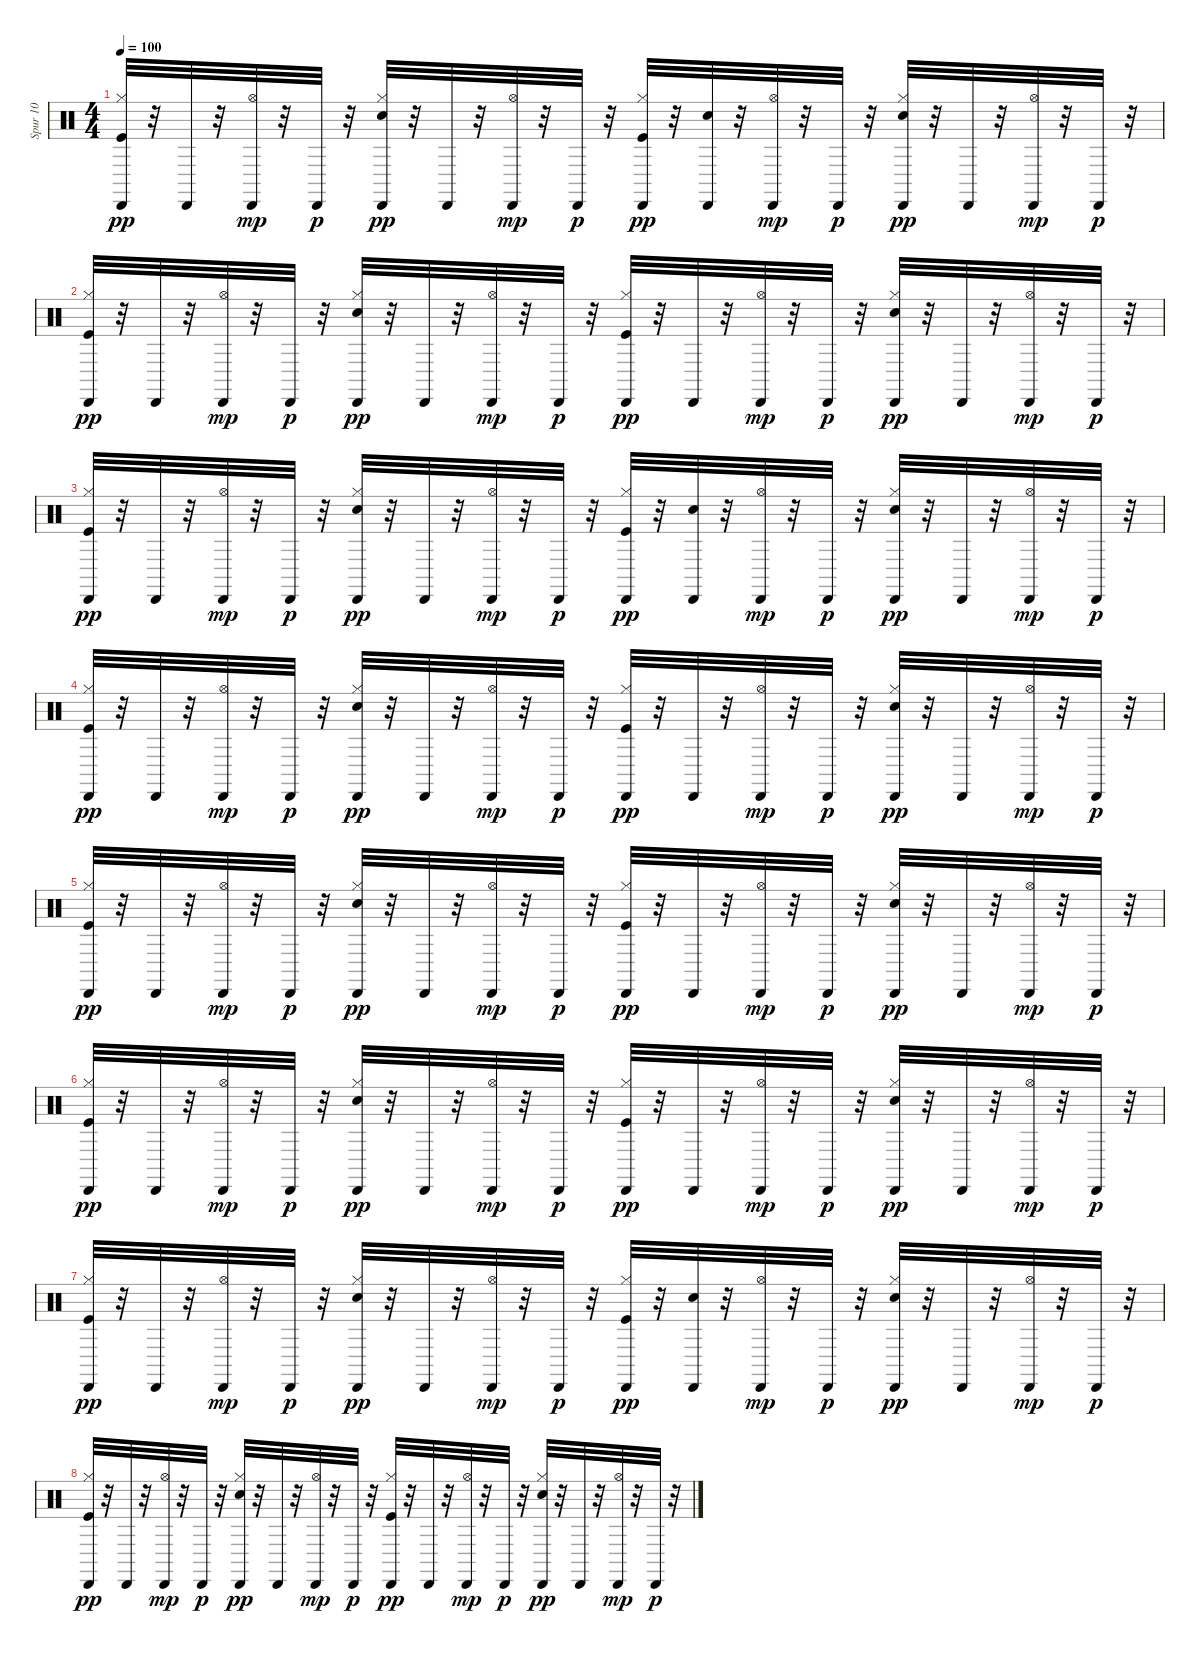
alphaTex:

\track ("Spur 10" "Spur 10") {instrument percussion}
\staff {score}
\articulation defaults
\ts (4 4)
\tempo 100
\clef neutral
\ks c
("Kick (hit)" "Hi-Hat (closed)" "Cabasa (hit)").32{dy pp} r.32 "Cabasa (hit)".32 r.32 ("Hi-Hat (open)" "Cabasa (hit)").32{dy mp} r.32 "Cabasa (hit)".32{dy p} r.32 ("Electric Snare (hit)" "Hi-Hat (closed)" "Cabasa (hit)").32{dy pp} r.32 "Cabasa (hit)".32 r.32 ("Hi-Hat (open)" "Cabasa (hit)").32{dy mp} r.32 "Cabasa (hit)".32{dy p} r.32 ("Kick (hit)" "Hi-Hat (closed)" "Cabasa (hit)").32{dy pp} r.32 ("Electric Snare (hit)" "Cabasa (hit)").32 r.32 ("Hi-Hat (open)" "Cabasa (hit)").32{dy mp} r.32 "Cabasa (hit)".32{dy p} r.32 ("Electric Snare (hit)" "Hi-Hat (closed)" "Cabasa (hit)").32{dy pp} r.32 "Cabasa (hit)".32 r.32 ("Hi-Hat (open)" "Cabasa (hit)").32{dy mp} r.32 "Cabasa (hit)".32{dy p} r.32 |
("Kick (hit)" "Hi-Hat (closed)" "Cabasa (hit)").32{dy pp} r.32 "Cabasa (hit)".32 r.32 ("Hi-Hat (open)" "Cabasa (hit)").32{dy mp} r.32 "Cabasa (hit)".32{dy p} r.32 ("Electric Snare (hit)" "Hi-Hat (closed)" "Cabasa (hit)").32{dy pp} r.32 "Cabasa (hit)".32 r.32 ("Hi-Hat (open)" "Cabasa (hit)").32{dy mp} r.32 "Cabasa (hit)".32{dy p} r.32 ("Kick (hit)" "Hi-Hat (closed)" "Cabasa (hit)").32{dy pp} r.32 "Cabasa (hit)".32 r.32 ("Hi-Hat (open)" "Cabasa (hit)").32{dy mp} r.32 "Cabasa (hit)".32{dy p} r.32 ("Electric Snare (hit)" "Hi-Hat (closed)" "Cabasa (hit)").32{dy pp} r.32 "Cabasa (hit)".32 r.32 ("Hi-Hat (open)" "Cabasa (hit)").32{dy mp} r.32 "Cabasa (hit)".32{dy p} r.32 |
("Kick (hit)" "Hi-Hat (closed)" "Cabasa (hit)").32{dy pp} r.32 "Cabasa (hit)".32 r.32 ("Hi-Hat (open)" "Cabasa (hit)").32{dy mp} r.32 "Cabasa (hit)".32{dy p} r.32 ("Electric Snare (hit)" "Hi-Hat (closed)" "Cabasa (hit)").32{dy pp} r.32 "Cabasa (hit)".32 r.32 ("Hi-Hat (open)" "Cabasa (hit)").32{dy mp} r.32 "Cabasa (hit)".32{dy p} r.32 ("Kick (hit)" "Hi-Hat (closed)" "Cabasa (hit)").32{dy pp} r.32 ("Electric Snare (hit)" "Cabasa (hit)").32 r.32 ("Hi-Hat (open)" "Cabasa (hit)").32{dy mp} r.32 "Cabasa (hit)".32{dy p} r.32 ("Electric Snare (hit)" "Hi-Hat (closed)" "Cabasa (hit)").32{dy pp} r.32 "Cabasa (hit)".32 r.32 ("Hi-Hat (open)" "Cabasa (hit)").32{dy mp} r.32 "Cabasa (hit)".32{dy p} r.32 |
("Kick (hit)" "Hi-Hat (closed)" "Cabasa (hit)").32{dy pp} r.32 "Cabasa (hit)".32 r.32 ("Hi-Hat (open)" "Cabasa (hit)").32{dy mp} r.32 "Cabasa (hit)".32{dy p} r.32 ("Electric Snare (hit)" "Hi-Hat (closed)" "Cabasa (hit)").32{dy pp} r.32 "Cabasa (hit)".32 r.32 ("Hi-Hat (open)" "Cabasa (hit)").32{dy mp} r.32 "Cabasa (hit)".32{dy p} r.32 ("Kick (hit)" "Hi-Hat (closed)" "Cabasa (hit)").32{dy pp} r.32 "Cabasa (hit)".32 r.32 ("Hi-Hat (open)" "Cabasa (hit)").32{dy mp} r.32 "Cabasa (hit)".32{dy p} r.32 ("Electric Snare (hit)" "Hi-Hat (closed)" "Cabasa (hit)").32{dy pp} r.32 "Cabasa (hit)".32 r.32 ("Hi-Hat (open)" "Cabasa (hit)").32{dy mp} r.32 "Cabasa (hit)".32{dy p} r.32 |
("Kick (hit)" "Hi-Hat (closed)" "Cabasa (hit)").32{dy pp} r.32 "Cabasa (hit)".32 r.32 ("Hi-Hat (open)" "Cabasa (hit)").32{dy mp} r.32 "Cabasa (hit)".32{dy p} r.32 ("Electric Snare (hit)" "Hi-Hat (closed)" "Cabasa (hit)").32{dy pp} r.32 "Cabasa (hit)".32 r.32 ("Hi-Hat (open)" "Cabasa (hit)").32{dy mp} r.32 "Cabasa (hit)".32{dy p} r.32 ("Kick (hit)" "Hi-Hat (closed)" "Cabasa (hit)").32{dy pp} r.32 "Cabasa (hit)".32 r.32 ("Hi-Hat (open)" "Cabasa (hit)").32{dy mp} r.32 "Cabasa (hit)".32{dy p} r.32 ("Electric Snare (hit)" "Hi-Hat (closed)" "Cabasa (hit)").32{dy pp} r.32 "Cabasa (hit)".32 r.32 ("Hi-Hat (open)" "Cabasa (hit)").32{dy mp} r.32 "Cabasa (hit)".32{dy p} r.32 |
("Kick (hit)" "Hi-Hat (closed)" "Cabasa (hit)").32{dy pp} r.32 "Cabasa (hit)".32 r.32 ("Hi-Hat (open)" "Cabasa (hit)").32{dy mp} r.32 "Cabasa (hit)".32{dy p} r.32 ("Electric Snare (hit)" "Hi-Hat (closed)" "Cabasa (hit)").32{dy pp} r.32 "Cabasa (hit)".32 r.32 ("Hi-Hat (open)" "Cabasa (hit)").32{dy mp} r.32 "Cabasa (hit)".32{dy p} r.32 ("Kick (hit)" "Hi-Hat (closed)" "Cabasa (hit)").32{dy pp} r.32 "Cabasa (hit)".32 r.32 ("Hi-Hat (open)" "Cabasa (hit)").32{dy mp} r.32 "Cabasa (hit)".32{dy p} r.32 ("Electric Snare (hit)" "Hi-Hat (closed)" "Cabasa (hit)").32{dy pp} r.32 "Cabasa (hit)".32 r.32 ("Hi-Hat (open)" "Cabasa (hit)").32{dy mp} r.32 "Cabasa (hit)".32{dy p} r.32 |
("Kick (hit)" "Hi-Hat (closed)" "Cabasa (hit)").32{dy pp} r.32 "Cabasa (hit)".32 r.32 ("Hi-Hat (open)" "Cabasa (hit)").32{dy mp} r.32 "Cabasa (hit)".32{dy p} r.32 ("Electric Snare (hit)" "Hi-Hat (closed)" "Cabasa (hit)").32{dy pp} r.32 "Cabasa (hit)".32 r.32 ("Hi-Hat (open)" "Cabasa (hit)").32{dy mp} r.32 "Cabasa (hit)".32{dy p} r.32 ("Kick (hit)" "Hi-Hat (closed)" "Cabasa (hit)").32{dy pp} r.32 ("Electric Snare (hit)" "Cabasa (hit)").32 r.32 ("Hi-Hat (open)" "Cabasa (hit)").32{dy mp} r.32 "Cabasa (hit)".32{dy p} r.32 ("Electric Snare (hit)" "Hi-Hat (closed)" "Cabasa (hit)").32{dy pp} r.32 "Cabasa (hit)".32 r.32 ("Hi-Hat (open)" "Cabasa (hit)").32{dy mp} r.32 "Cabasa (hit)".32{dy p} r.32 |
("Kick (hit)" "Hi-Hat (closed)" "Cabasa (hit)").32{dy pp} r.32 "Cabasa (hit)".32 r.32 ("Hi-Hat (open)" "Cabasa (hit)").32{dy mp} r.32 "Cabasa (hit)".32{dy p} r.32 ("Electric Snare (hit)" "Hi-Hat (closed)" "Cabasa (hit)").32{dy pp} r.32 "Cabasa (hit)".32 r.32 ("Hi-Hat (open)" "Cabasa (hit)").32{dy mp} r.32 "Cabasa (hit)".32{dy p} r.32 ("Kick (hit)" "Hi-Hat (closed)" "Cabasa (hit)").32{dy pp} r.32 "Cabasa (hit)".32 r.32 ("Hi-Hat (open)" "Cabasa (hit)").32{dy mp} r.32 "Cabasa (hit)".32{dy p} r.32 ("Electric Snare (hit)" "Hi-Hat (closed)" "Cabasa (hit)").32{dy pp} r.32 "Cabasa (hit)".32 r.32 ("Hi-Hat (open)" "Cabasa (hit)").32{dy mp} r.32 "Cabasa (hit)".32{dy p} r.32
